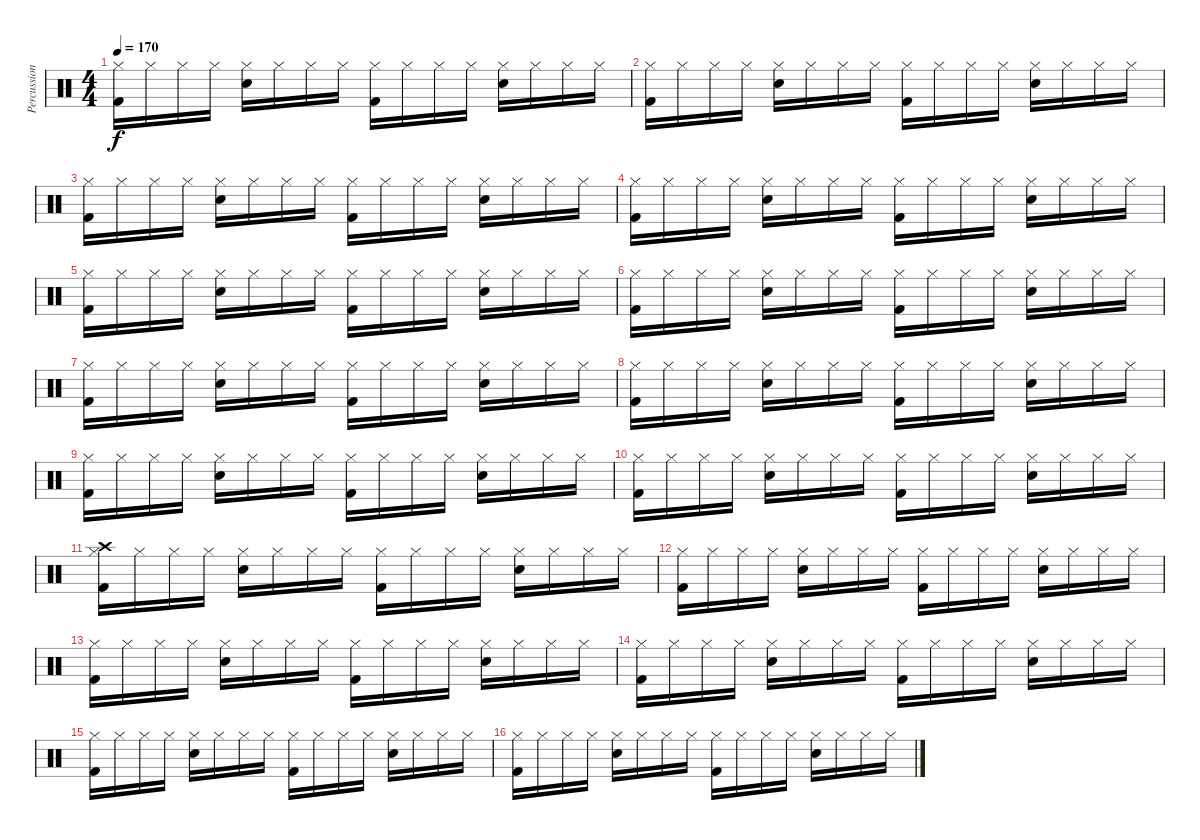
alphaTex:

\track ("Percussions" "Percussion") {instrument percussion}
\staff {score}
\articulation defaults
\ts (4 4)
\tempo 170
\clef neutral
\ks c
("Hi-Hat (closed)" "Kick (hit) 2").16{dy f} "Hi-Hat (closed)".16 "Hi-Hat (closed)".16 "Hi-Hat (closed)".16 ("Hi-Hat (closed)" "Snare (hit) 2").16 "Hi-Hat (closed)".16 "Hi-Hat (closed)".16 "Hi-Hat (closed)".16 ("Hi-Hat (closed)" "Kick (hit) 2").16 "Hi-Hat (closed)".16 "Hi-Hat (closed)".16 "Hi-Hat (closed)".16 ("Hi-Hat (closed)" "Snare (hit) 2").16 "Hi-Hat (closed)".16 "Hi-Hat (closed)".16 "Hi-Hat (closed)".16 |
("Hi-Hat (closed)" "Kick (hit) 2").16 "Hi-Hat (closed)".16 "Hi-Hat (closed)".16 "Hi-Hat (closed)".16 ("Hi-Hat (closed)" "Snare (hit) 2").16 "Hi-Hat (closed)".16 "Hi-Hat (closed)".16 "Hi-Hat (closed)".16 ("Hi-Hat (closed)" "Kick (hit) 2").16 "Hi-Hat (closed)".16 "Hi-Hat (closed)".16 "Hi-Hat (closed)".16 ("Hi-Hat (closed)" "Snare (hit) 2").16 "Hi-Hat (closed)".16 "Hi-Hat (closed)".16 "Hi-Hat (closed)".16 |
("Hi-Hat (closed)" "Kick (hit) 2").16 "Hi-Hat (closed)".16 "Hi-Hat (closed)".16 "Hi-Hat (closed)".16 ("Hi-Hat (closed)" "Snare (hit) 2").16 "Hi-Hat (closed)".16 "Hi-Hat (closed)".16 "Hi-Hat (closed)".16 ("Hi-Hat (closed)" "Kick (hit) 2").16 "Hi-Hat (closed)".16 "Hi-Hat (closed)".16 "Hi-Hat (closed)".16 ("Hi-Hat (closed)" "Snare (hit) 2").16 "Hi-Hat (closed)".16 "Hi-Hat (closed)".16 "Hi-Hat (closed)".16 |
("Hi-Hat (closed)" "Kick (hit) 2").16 "Hi-Hat (closed)".16 "Hi-Hat (closed)".16 "Hi-Hat (closed)".16 ("Hi-Hat (closed)" "Snare (hit) 2").16 "Hi-Hat (closed)".16 "Hi-Hat (closed)".16 "Hi-Hat (closed)".16 ("Hi-Hat (closed)" "Kick (hit) 2").16 "Hi-Hat (closed)".16 "Hi-Hat (closed)".16 "Hi-Hat (closed)".16 ("Hi-Hat (closed)" "Snare (hit) 2").16 "Hi-Hat (closed)".16 "Hi-Hat (closed)".16 "Hi-Hat (closed)".16 |
("Hi-Hat (closed)" "Kick (hit) 2").16 "Hi-Hat (closed)".16 "Hi-Hat (closed)".16 "Hi-Hat (closed)".16 ("Hi-Hat (closed)" "Snare (hit) 2").16 "Hi-Hat (closed)".16 "Hi-Hat (closed)".16 "Hi-Hat (closed)".16 ("Hi-Hat (closed)" "Kick (hit) 2").16 "Hi-Hat (closed)".16 "Hi-Hat (closed)".16 "Hi-Hat (closed)".16 ("Hi-Hat (closed)" "Snare (hit) 2").16 "Hi-Hat (closed)".16 "Hi-Hat (closed)".16 "Hi-Hat (closed)".16 |
("Hi-Hat (closed)" "Kick (hit) 2").16 "Hi-Hat (closed)".16 "Hi-Hat (closed)".16 "Hi-Hat (closed)".16 ("Hi-Hat (closed)" "Snare (hit) 2").16 "Hi-Hat (closed)".16 "Hi-Hat (closed)".16 "Hi-Hat (closed)".16 ("Hi-Hat (closed)" "Kick (hit) 2").16 "Hi-Hat (closed)".16 "Hi-Hat (closed)".16 "Hi-Hat (closed)".16 ("Hi-Hat (closed)" "Snare (hit) 2").16 "Hi-Hat (closed)".16 "Hi-Hat (closed)".16 "Hi-Hat (closed)".16 |
("Hi-Hat (closed)" "Kick (hit) 2").16 "Hi-Hat (closed)".16 "Hi-Hat (closed)".16 "Hi-Hat (closed)".16 ("Hi-Hat (closed)" "Snare (hit) 2").16 "Hi-Hat (closed)".16 "Hi-Hat (closed)".16 "Hi-Hat (closed)".16 ("Hi-Hat (closed)" "Kick (hit) 2").16 "Hi-Hat (closed)".16 "Hi-Hat (closed)".16 "Hi-Hat (closed)".16 ("Hi-Hat (closed)" "Snare (hit) 2").16 "Hi-Hat (closed)".16 "Hi-Hat (closed)".16 "Hi-Hat (closed)".16 |
("Hi-Hat (closed)" "Kick (hit) 2").16 "Hi-Hat (closed)".16 "Hi-Hat (closed)".16 "Hi-Hat (closed)".16 ("Hi-Hat (closed)" "Snare (hit) 2").16 "Hi-Hat (closed)".16 "Hi-Hat (closed)".16 "Hi-Hat (closed)".16 ("Hi-Hat (closed)" "Kick (hit) 2").16 "Hi-Hat (closed)".16 "Hi-Hat (closed)".16 "Hi-Hat (closed)".16 ("Hi-Hat (closed)" "Snare (hit) 2").16 "Hi-Hat (closed)".16 "Hi-Hat (closed)".16 "Hi-Hat (closed)".16 |
("Hi-Hat (closed)" "Kick (hit) 2").16 "Hi-Hat (closed)".16 "Hi-Hat (closed)".16 "Hi-Hat (closed)".16 ("Hi-Hat (closed)" "Snare (hit) 2").16 "Hi-Hat (closed)".16 "Hi-Hat (closed)".16 "Hi-Hat (closed)".16 ("Hi-Hat (closed)" "Kick (hit) 2").16 "Hi-Hat (closed)".16 "Hi-Hat (closed)".16 "Hi-Hat (closed)".16 ("Hi-Hat (closed)" "Snare (hit) 2").16 "Hi-Hat (closed)".16 "Hi-Hat (closed)".16 "Hi-Hat (closed)".16 |
("Hi-Hat (closed)" "Kick (hit) 2").16 "Hi-Hat (closed)".16 "Hi-Hat (closed)".16 "Hi-Hat (closed)".16 ("Hi-Hat (closed)" "Snare (hit) 2").16 "Hi-Hat (closed)".16 "Hi-Hat (closed)".16 "Hi-Hat (closed)".16 ("Hi-Hat (closed)" "Kick (hit) 2").16 "Hi-Hat (closed)".16 "Hi-Hat (closed)".16 "Hi-Hat (closed)".16 ("Hi-Hat (closed)" "Snare (hit) 2").16 "Hi-Hat (closed)".16 "Hi-Hat (closed)".16 "Hi-Hat (closed)".16 |
("Hi-Hat (closed)" "Kick (hit) 2" "Crash high (hit)").16 "Hi-Hat (closed)".16 "Hi-Hat (closed)".16 "Hi-Hat (closed)".16 ("Hi-Hat (closed)" "Snare (hit) 2").16 "Hi-Hat (closed)".16 "Hi-Hat (closed)".16 "Hi-Hat (closed)".16 ("Hi-Hat (closed)" "Kick (hit) 2").16 "Hi-Hat (closed)".16 "Hi-Hat (closed)".16 "Hi-Hat (closed)".16 ("Hi-Hat (closed)" "Snare (hit) 2").16 "Hi-Hat (closed)".16 "Hi-Hat (closed)".16 "Hi-Hat (closed)".16 |
("Hi-Hat (closed)" "Kick (hit) 2").16 "Hi-Hat (closed)".16 "Hi-Hat (closed)".16 "Hi-Hat (closed)".16 ("Hi-Hat (closed)" "Snare (hit) 2").16 "Hi-Hat (closed)".16 "Hi-Hat (closed)".16 "Hi-Hat (closed)".16 ("Hi-Hat (closed)" "Kick (hit) 2").16 "Hi-Hat (closed)".16 "Hi-Hat (closed)".16 "Hi-Hat (closed)".16 ("Hi-Hat (closed)" "Snare (hit) 2").16 "Hi-Hat (closed)".16 "Hi-Hat (closed)".16 "Hi-Hat (closed)".16 |
("Hi-Hat (closed)" "Kick (hit) 2").16 "Hi-Hat (closed)".16 "Hi-Hat (closed)".16 "Hi-Hat (closed)".16 ("Hi-Hat (closed)" "Snare (hit) 2").16 "Hi-Hat (closed)".16 "Hi-Hat (closed)".16 "Hi-Hat (closed)".16 ("Hi-Hat (closed)" "Kick (hit) 2").16 "Hi-Hat (closed)".16 "Hi-Hat (closed)".16 "Hi-Hat (closed)".16 ("Hi-Hat (closed)" "Snare (hit) 2").16 "Hi-Hat (closed)".16 "Hi-Hat (closed)".16 "Hi-Hat (closed)".16 |
("Hi-Hat (closed)" "Kick (hit) 2").16 "Hi-Hat (closed)".16 "Hi-Hat (closed)".16 "Hi-Hat (closed)".16 ("Hi-Hat (closed)" "Snare (hit) 2").16 "Hi-Hat (closed)".16 "Hi-Hat (closed)".16 "Hi-Hat (closed)".16 ("Hi-Hat (closed)" "Kick (hit) 2").16 "Hi-Hat (closed)".16 "Hi-Hat (closed)".16 "Hi-Hat (closed)".16 ("Hi-Hat (closed)" "Snare (hit) 2").16 "Hi-Hat (closed)".16 "Hi-Hat (closed)".16 "Hi-Hat (closed)".16 |
("Hi-Hat (closed)" "Kick (hit) 2").16 "Hi-Hat (closed)".16 "Hi-Hat (closed)".16 "Hi-Hat (closed)".16 ("Hi-Hat (closed)" "Snare (hit) 2").16 "Hi-Hat (closed)".16 "Hi-Hat (closed)".16 "Hi-Hat (closed)".16 ("Hi-Hat (closed)" "Kick (hit) 2").16 "Hi-Hat (closed)".16 "Hi-Hat (closed)".16 "Hi-Hat (closed)".16 ("Hi-Hat (closed)" "Snare (hit) 2").16 "Hi-Hat (closed)".16 "Hi-Hat (closed)".16 "Hi-Hat (closed)".16 |
("Hi-Hat (closed)" "Kick (hit) 2").16 "Hi-Hat (closed)".16 "Hi-Hat (closed)".16 "Hi-Hat (closed)".16 ("Hi-Hat (closed)" "Snare (hit) 2").16 "Hi-Hat (closed)".16 "Hi-Hat (closed)".16 "Hi-Hat (closed)".16 ("Hi-Hat (closed)" "Kick (hit) 2").16 "Hi-Hat (closed)".16 "Hi-Hat (closed)".16 "Hi-Hat (closed)".16 ("Hi-Hat (closed)" "Snare (hit) 2").16 "Hi-Hat (closed)".16 "Hi-Hat (closed)".16 "Hi-Hat (closed)".16
